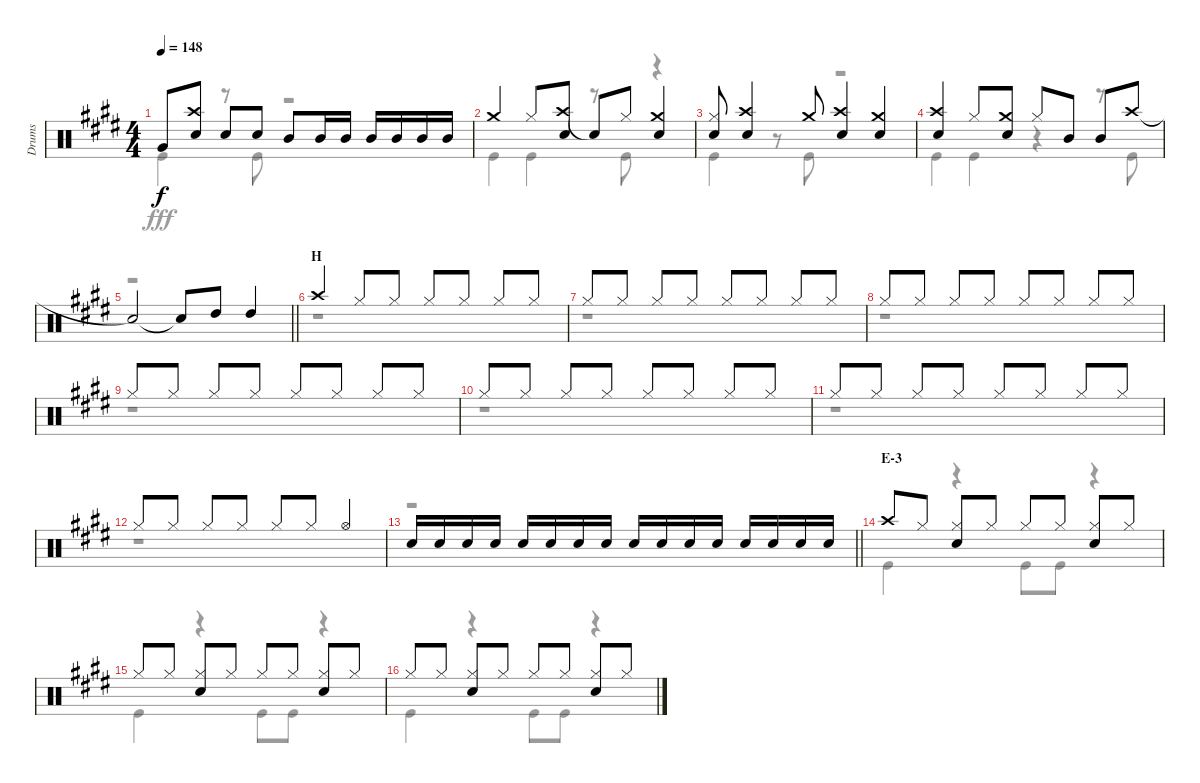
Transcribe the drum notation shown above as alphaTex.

\track ("Drums" "Drums") {instrument percussion}
\staff {score}
\articulation defaults
\voice
\ts (4 4)
\tempo 148
\clef neutral
\ks e "Very Low Tom (hit)".8{dy f}
("Crash high (hit)" "Snare (hit) 2").8 "Snare (hit) 2".8 "Snare (hit) 2".8 "Mid Tom (hit)".8 "Mid Tom (hit)".16 "Mid Tom (hit)".16 "Mid Tom (hit)".16 "Mid Tom (hit)".16 "Mid Tom (hit)".16 "Mid Tom (hit)".16 |
"Crash medium (hit)".4 "Hi-Hat (closed)".8 ("Crash high (hit)" "Snare (hit) 2").8 "Snare (hit)"{t}.8 "Hi-Hat (closed)".8 ("Crash medium (hit)" "Snare (hit) 2").4 |
("Hi-Hat (closed)" "Snare (hit) 2").8 ("Crash high (hit)" "Snare (hit) 2").4 "Crash medium (hit)".8 ("Crash high (hit)" "Snare (hit) 2").4 ("Crash medium (hit)" "Snare (hit) 2").4 |
("Crash high (hit)" "Snare (hit) 2").4 "Hi-Hat (closed)".8 ("Crash medium (hit)" "Snare (hit) 2").8 "Hi-Hat (closed)".8 "Mid Tom (hit)".8 "Mid Tom (hit)".8 "Crash high (hit)".8 |
\barLineRight lightlight "Snare (hit)"{t}.2 "Snare (hit)"{t}.8 "High Tom (hit)".8 "High Tom (hit)".4
|
\section ("" "H")
"Crash high (hit)".4 "Hi-Hat (closed)".8 "Hi-Hat (closed)".8 "Hi-Hat (closed)".8 "Hi-Hat (closed)".8 "Hi-Hat (closed)".8 "Hi-Hat (closed)".8 |
"Hi-Hat (closed)".8 "Hi-Hat (closed)".8 "Hi-Hat (closed)".8 "Hi-Hat (closed)".8 "Hi-Hat (closed)".8 "Hi-Hat (closed)".8 "Hi-Hat (closed)".8 "Hi-Hat (closed)".8 |
"Hi-Hat (closed)".8 "Hi-Hat (closed)".8 "Hi-Hat (closed)".8 "Hi-Hat (closed)".8 "Hi-Hat (closed)".8 "Hi-Hat (closed)".8 "Hi-Hat (closed)".8 "Hi-Hat (closed)".8 |
"Hi-Hat (closed)".8 "Hi-Hat (closed)".8 "Hi-Hat (closed)".8 "Hi-Hat (closed)".8 "Hi-Hat (closed)".8 "Hi-Hat (closed)".8 "Hi-Hat (closed)".8 "Hi-Hat (closed)".8 |
"Hi-Hat (closed)".8 "Hi-Hat (closed)".8 "Hi-Hat (closed)".8 "Hi-Hat (closed)".8 "Hi-Hat (closed)".8 "Hi-Hat (closed)".8 "Hi-Hat (closed)".8 "Hi-Hat (closed)".8 |
"Hi-Hat (closed)".8 "Hi-Hat (closed)".8 "Hi-Hat (closed)".8 "Hi-Hat (closed)".8 "Hi-Hat (closed)".8 "Hi-Hat (closed)".8 "Hi-Hat (closed)".8 "Hi-Hat (closed)".8 |
"Hi-Hat (closed)".8 "Hi-Hat (closed)".8 "Hi-Hat (closed)".8 "Hi-Hat (closed)".8 "Hi-Hat (closed)".8 "Hi-Hat (closed)".8 "Hi-Hat (open)".4 |
\barLineRight lightlight "Snare (hit) 2".16 "Snare (hit) 2".16 "Snare (hit) 2".16 "Snare (hit) 2".16 "Snare (hit) 2".16 "Snare (hit) 2".16 "Snare (hit) 2".16 "Snare (hit) 2".16 "Snare (hit) 2".16 "Snare (hit) 2".16 "Snare (hit) 2".16 "Snare (hit) 2".16 "Snare (hit) 2".16 "Snare (hit) 2".16 "Snare (hit) 2".16 "Snare (hit) 2".16
|
\section ("" "E-3")
"Crash high (hit)".8 "Hi-Hat (closed)".8 ("Hi-Hat (closed)" "Snare (hit) 2").8 "Hi-Hat (closed)".8 "Hi-Hat (closed)".8 "Hi-Hat (closed)".8 ("Hi-Hat (closed)" "Snare (hit) 2").8 "Hi-Hat (closed)".8 |
"Hi-Hat (closed)".8 "Hi-Hat (closed)".8 ("Hi-Hat (closed)" "Snare (hit) 2").8 "Hi-Hat (closed)".8 "Hi-Hat (closed)".8 "Hi-Hat (closed)".8 ("Hi-Hat (closed)" "Snare (hit) 2").8 "Hi-Hat (closed)".8 |
"Hi-Hat (closed)".8 "Hi-Hat (closed)".8 ("Hi-Hat (closed)" "Snare (hit) 2").8 "Hi-Hat (closed)".8 "Hi-Hat (closed)".8 "Hi-Hat (closed)".8 ("Hi-Hat (closed)" "Snare (hit) 2").8 "Hi-Hat (closed)".8
\voice
\clef neutral
\ottava regular
\simile none
\ks e "Kick (hit)".4{dy fff}
r.8 "Kick (hit)".8 r.2 |
"Kick (hit)".4 "Kick (hit)".4 r.8 "Kick (hit)".8 r.4 |
"Kick (hit)".4 r.8 "Kick (hit)".8 r.2 |
"Kick (hit)".4 "Kick (hit)".4 r.4 r.8 "Kick (hit)".8 |
\barLineRight lightlight
r.1 |
r.1 |
r.1 |
r.1 |
r.1 |
r.1 |
r.1 |
r.1 |
\barLineRight lightlight
r.1 |
"Kick (hit)".4 r.4 "Kick (hit)".8 "Kick (hit)".8 r.4 |
"Kick (hit)".4 r.4 "Kick (hit)".8 "Kick (hit)".8 r.4 |
"Kick (hit)".4 r.4 "Kick (hit)".8 "Kick (hit)".8 r.4
